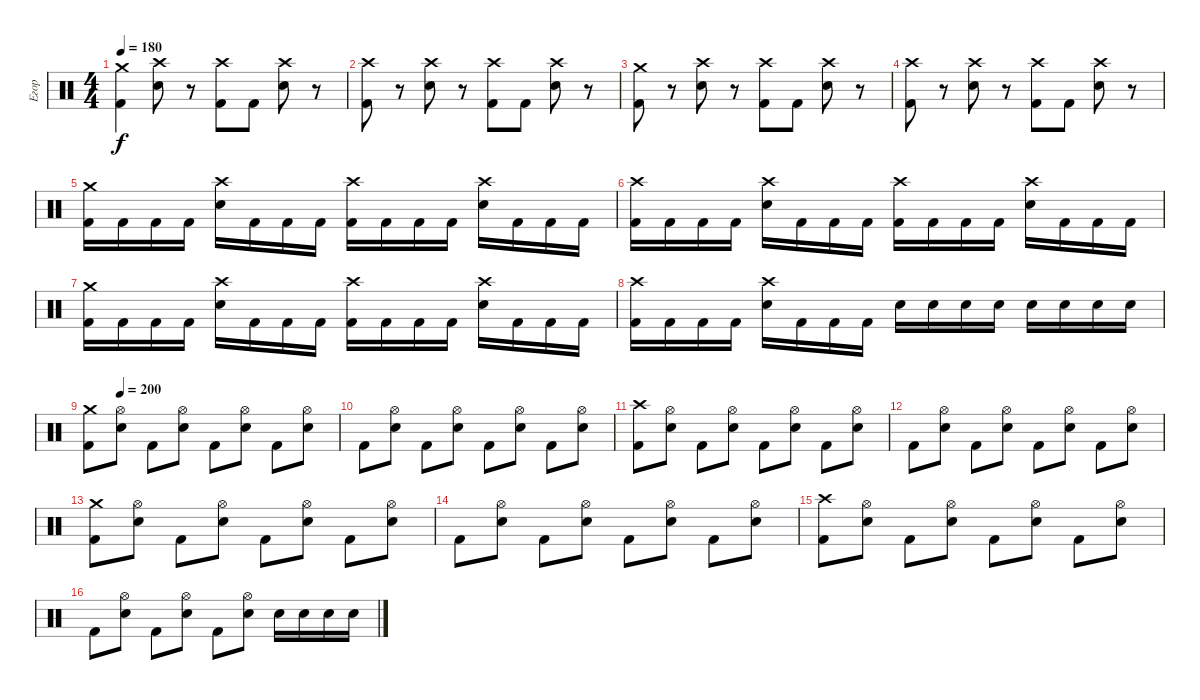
\track ("Егор" "Егор") {instrument percussion}
\staff {score}
\articulation defaults
\ts (4 4)
\tempo 180
\clef neutral
\ks c
("Crash medium (hit)" "Kick (hit) 2").4{dy f} ("Crash high (hit)" "Snare (hit) 2").8 r.8 ("Crash high (hit)" "Kick (hit) 2").8 "Kick (hit) 2".8 ("Crash high (hit)" "Snare (hit) 2").8 r.8 |
("Crash high (hit)" "Kick (hit) 2").8 r.8 ("Crash high (hit)" "Snare (hit) 2").8 r.8 ("Crash high (hit)" "Kick (hit) 2").8 "Kick (hit) 2".8 ("Crash high (hit)" "Snare (hit) 2").8 r.8 |
("Crash medium (hit)" "Kick (hit) 2").8 r.8 ("Snare (hit) 2" "Crash high (hit)").8 r.8 ("Kick (hit) 2" "Crash high (hit)").8 "Kick (hit) 2".8 ("Snare (hit) 2" "Crash high (hit)").8 r.8 |
("Kick (hit) 2" "Crash high (hit)").8 r.8 ("Snare (hit) 2" "Crash high (hit)").8 r.8 ("Kick (hit) 2" "Crash high (hit)").8 "Kick (hit) 2".8 ("Snare (hit) 2" "Crash high (hit)").8 r.8 |
("Crash medium (hit)" "Kick (hit) 2").16 "Kick (hit) 2".16 "Kick (hit) 2".16 "Kick (hit) 2".16 ("Crash high (hit)" "Snare (hit) 2").16 "Kick (hit) 2".16 "Kick (hit) 2".16 "Kick (hit) 2".16 ("Crash high (hit)" "Kick (hit) 2").16 "Kick (hit) 2".16 "Kick (hit) 2".16 "Kick (hit) 2".16 ("Crash high (hit)" "Snare (hit) 2").16 "Kick (hit) 2".16 "Kick (hit) 2".16 "Kick (hit) 2".16 |
("Crash high (hit)" "Kick (hit) 2").16 "Kick (hit) 2".16 "Kick (hit) 2".16 "Kick (hit) 2".16 ("Crash high (hit)" "Snare (hit) 2").16 "Kick (hit) 2".16 "Kick (hit) 2".16 "Kick (hit) 2".16 ("Crash high (hit)" "Kick (hit) 2").16 "Kick (hit) 2".16 "Kick (hit) 2".16 "Kick (hit) 2".16 ("Crash high (hit)" "Snare (hit) 2").16 "Kick (hit) 2".16 "Kick (hit) 2".16 "Kick (hit) 2".16 |
("Crash medium (hit)" "Kick (hit) 2").16 "Kick (hit) 2".16 "Kick (hit) 2".16 "Kick (hit) 2".16 ("Crash high (hit)" "Snare (hit) 2").16 "Kick (hit) 2".16 "Kick (hit) 2".16 "Kick (hit) 2".16 ("Crash high (hit)" "Kick (hit) 2").16 "Kick (hit) 2".16 "Kick (hit) 2".16 "Kick (hit) 2".16 ("Crash high (hit)" "Snare (hit) 2").16 "Kick (hit) 2".16 "Kick (hit) 2".16 "Kick (hit) 2".16 |
("Crash high (hit)" "Kick (hit) 2").16 "Kick (hit) 2".16 "Kick (hit) 2".16 "Kick (hit) 2".16 ("Crash high (hit)" "Snare (hit) 2").16 "Kick (hit) 2".16 "Kick (hit) 2".16 "Kick (hit) 2".16 "Snare (hit) 2".16 "Snare (hit) 2".16 "Snare (hit) 2".16 "Snare (hit) 2".16 "Snare (hit) 2".16 "Snare (hit) 2".16 "Snare (hit) 2".16 "Snare (hit) 2".16 |
\tempo (200 0.125)
("Crash medium (hit)" "Kick (hit) 2").8 ("Hi-Hat (open)" "Snare (hit) 2").8 "Kick (hit) 2".8 ("Hi-Hat (open)" "Snare (hit) 2").8 "Kick (hit) 2".8 ("Hi-Hat (open)" "Snare (hit) 2").8 "Kick (hit) 2".8 ("Hi-Hat (open)" "Snare (hit) 2").8 |
"Kick (hit) 2".8 ("Hi-Hat (open)" "Snare (hit) 2").8 "Kick (hit) 2".8 ("Hi-Hat (open)" "Snare (hit) 2").8 "Kick (hit) 2".8 ("Hi-Hat (open)" "Snare (hit) 2").8 "Kick (hit) 2".8 ("Hi-Hat (open)" "Snare (hit) 2").8 |
("Crash high (hit)" "Kick (hit) 2").8 ("Hi-Hat (open)" "Snare (hit) 2").8 "Kick (hit) 2".8 ("Hi-Hat (open)" "Snare (hit) 2").8 "Kick (hit) 2".8 ("Hi-Hat (open)" "Snare (hit) 2").8 "Kick (hit) 2".8 ("Hi-Hat (open)" "Snare (hit) 2").8 |
"Kick (hit) 2".8 ("Hi-Hat (open)" "Snare (hit) 2").8 "Kick (hit) 2".8 ("Hi-Hat (open)" "Snare (hit) 2").8 "Kick (hit) 2".8 ("Hi-Hat (open)" "Snare (hit) 2").8 "Kick (hit) 2".8 ("Hi-Hat (open)" "Snare (hit) 2").8 |
("Crash medium (hit)" "Kick (hit) 2").8 ("Hi-Hat (open)" "Snare (hit) 2").8 "Kick (hit) 2".8 ("Hi-Hat (open)" "Snare (hit) 2").8 "Kick (hit) 2".8 ("Hi-Hat (open)" "Snare (hit) 2").8 "Kick (hit) 2".8 ("Hi-Hat (open)" "Snare (hit) 2").8 |
"Kick (hit) 2".8 ("Hi-Hat (open)" "Snare (hit) 2").8 "Kick (hit) 2".8 ("Hi-Hat (open)" "Snare (hit) 2").8 "Kick (hit) 2".8 ("Hi-Hat (open)" "Snare (hit) 2").8 "Kick (hit) 2".8 ("Hi-Hat (open)" "Snare (hit) 2").8 |
("Crash high (hit)" "Kick (hit) 2").8 ("Hi-Hat (open)" "Snare (hit) 2").8 "Kick (hit) 2".8 ("Hi-Hat (open)" "Snare (hit) 2").8 "Kick (hit) 2".8 ("Hi-Hat (open)" "Snare (hit) 2").8 "Kick (hit) 2".8 ("Hi-Hat (open)" "Snare (hit) 2").8 |
"Kick (hit) 2".8 ("Hi-Hat (open)" "Snare (hit) 2").8 "Kick (hit) 2".8 ("Hi-Hat (open)" "Snare (hit) 2").8 "Kick (hit) 2".8 ("Hi-Hat (open)" "Snare (hit) 2").8 "Snare (hit) 2".16 "Snare (hit) 2".16 "Snare (hit) 2".16 "Snare (hit) 2".16
